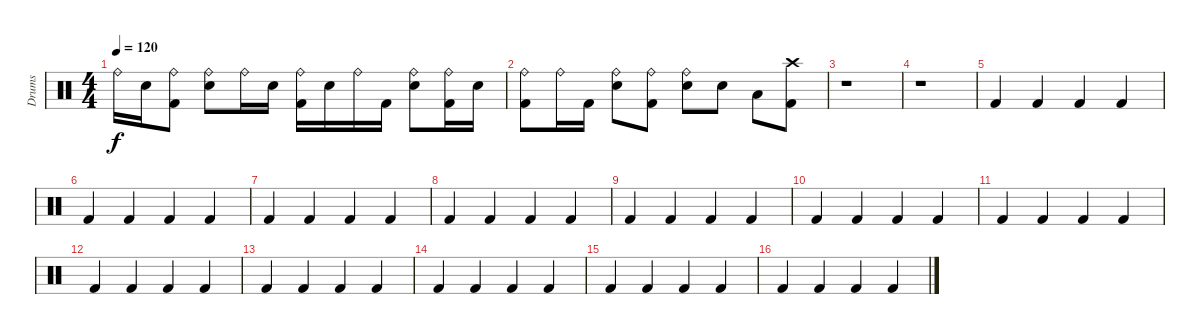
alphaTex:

\track ("Drums" "Drums") {instrument percussion}
\staff {score}
\articulation defaults
\ts (4 4)
\tempo 120
\clef neutral
\ks c "Ride (bell)".16{dy f} "Electric Snare (hit)".16
("Ride (bell)" "Kick (hit) 2").8 ("Ride (bell)" "Electric Snare (hit)").8 "Ride (bell)".16 "Electric Snare (hit)".16 ("Ride (bell)" "Kick (hit) 2").16 "Electric Snare (hit)".16 "Ride (bell)".16 "Kick (hit) 2".16 ("Ride (bell)" "Electric Snare (hit)").8 ("Ride (bell)" "Kick (hit) 2").16 "Electric Snare (hit)".16 |
("Ride (bell)" "Kick (hit) 2").8 "Ride (bell)".16 "Kick (hit) 2".16 ("Ride (bell)" "Electric Snare (hit)").8 ("Ride (bell)" "Kick (hit) 2").8 ("Ride (bell)" "Electric Snare (hit)").8 "Electric Snare (hit)".8 "Low Floor Tom (hit)".8 ("Crash high (hit)" "Kick (hit) 2").8 |
r.1 |
r.1 |
"Kick (hit) 2".4 "Kick (hit) 2".4 "Kick (hit) 2".4 "Kick (hit) 2".4 |
"Kick (hit) 2".4 "Kick (hit) 2".4 "Kick (hit) 2".4 "Kick (hit) 2".4 |
"Kick (hit) 2".4 "Kick (hit) 2".4 "Kick (hit) 2".4 "Kick (hit) 2".4 |
"Kick (hit) 2".4 "Kick (hit) 2".4 "Kick (hit) 2".4 "Kick (hit) 2".4 |
"Kick (hit) 2".4 "Kick (hit) 2".4 "Kick (hit) 2".4 "Kick (hit) 2".4 |
"Kick (hit) 2".4 "Kick (hit) 2".4 "Kick (hit) 2".4 "Kick (hit) 2".4 |
"Kick (hit) 2".4 "Kick (hit) 2".4 "Kick (hit) 2".4 "Kick (hit) 2".4 |
"Kick (hit) 2".4 "Kick (hit) 2".4 "Kick (hit) 2".4 "Kick (hit) 2".4 |
"Kick (hit) 2".4 "Kick (hit) 2".4 "Kick (hit) 2".4 "Kick (hit) 2".4 |
"Kick (hit) 2".4 "Kick (hit) 2".4 "Kick (hit) 2".4 "Kick (hit) 2".4 |
"Kick (hit) 2".4 "Kick (hit) 2".4 "Kick (hit) 2".4 "Kick (hit) 2".4 |
"Kick (hit) 2".4 "Kick (hit) 2".4 "Kick (hit) 2".4 "Kick (hit) 2".4
